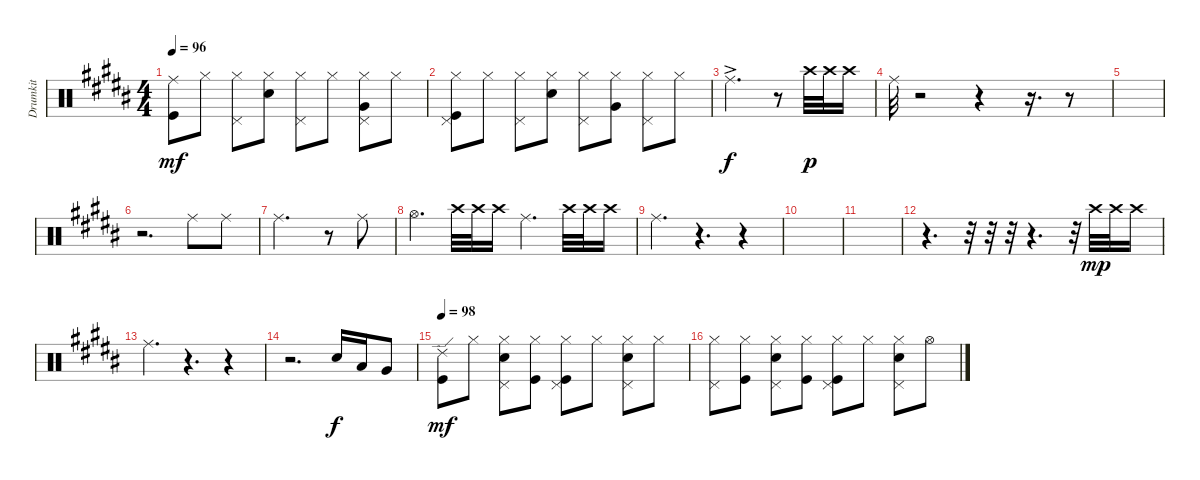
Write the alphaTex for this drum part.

\track ("Drumkit" "Drumkit") {instrument percussion}
\staff {score}
\articulation defaults
\ts (4 4)
\tempo 96
\clef neutral
\ks b
("Kick (hit)" "Ride (middle)").8{dy mf} "Hi-Hat (closed)".8 ("Hi-Hat (closed)" "Pedal Hi-Hat (hit)").8 ("Snare (hit) 2" "Hi-Hat (closed)").8 ("Pedal Hi-Hat (hit)" "Hi-Hat (closed)").8 "Hi-Hat (closed)".8 ("Hi-Hat (closed)" "Pedal Hi-Hat (hit)" "Very Low Tom (hit)").8 "Hi-Hat (closed)".8 |
("Kick (hit)" "Hi-Hat (closed)" "Pedal Hi-Hat (hit)").8 "Hi-Hat (closed)".8 ("Hi-Hat (closed)" "Pedal Hi-Hat (hit)").8 ("Snare (hit) 2" "Hi-Hat (closed)").8 ("Pedal Hi-Hat (hit)" "Hi-Hat (closed)").8 ("Hi-Hat (closed)" "Very Low Tom (hit)").8 ("Hi-Hat (closed)" "Pedal Hi-Hat (hit)").8 "Hi-Hat (closed)".8 |
"Ride (middle)"{ac}.2{d dy f} r.8 "Crash high (hit)".32{dy p} "Crash high (hit)".32 "Crash high (hit)".16 |
"Ride (middle)".32 r.2 r.4 r.16{d} r.8 |
|
r.2{d} "Ride (middle)".8 "Ride (middle)".8 |
"Ride (middle)".2{d} r.8 "Ride (middle)".8 |
"Hi-Hat (open)".4{d} "Crash high (hit)".32 "Crash high (hit)".32 "Crash high (hit)".16 "Ride (middle)".4{d} "Crash high (hit)".32 "Crash high (hit)".32 "Crash high (hit)".16 |
"Ride (middle)".4{d} r.4{d} r.4 |
|
|
r.4{d} r.32 r.32 r.32 r.4{d} r.32 "Crash high (hit)".32{dy mp} "Crash high (hit)".32 "Crash high (hit)".16 |
"Ride (middle)".4{d} r.4{d} r.4 |
r.2{d} "Snare (hit) 2".16{dy f} "Low Tom (hit)".16 "Very Low Tom (hit)".8 |
\tempo 98
("Kick (hit)" "Ride (edge) 2").8{dy mf} "Hi-Hat (closed)".8 ("Hi-Hat (closed)" "Pedal Hi-Hat (hit)" "Snare (hit) 2").8 ("Kick (hit)" "Hi-Hat (closed)").8 ("Hi-Hat (closed)" "Pedal Hi-Hat (hit)" "Kick (hit)").8 "Hi-Hat (closed)".8 ("Snare (hit) 2" "Pedal Hi-Hat (hit)" "Hi-Hat (closed)").8 "Hi-Hat (closed)".8 |
("Hi-Hat (closed)" "Pedal Hi-Hat (hit)").8 ("Hi-Hat (closed)" "Kick (hit)").8 ("Snare (hit) 2" "Hi-Hat (closed)" "Pedal Hi-Hat (hit)").8 ("Kick (hit)" "Hi-Hat (closed)").8 ("Hi-Hat (closed)" "Kick (hit)" "Pedal Hi-Hat (hit)").8 "Hi-Hat (closed)".8 ("Snare (hit) 2" "Hi-Hat (closed)" "Pedal Hi-Hat (hit)").8 "Hi-Hat (open)".8
